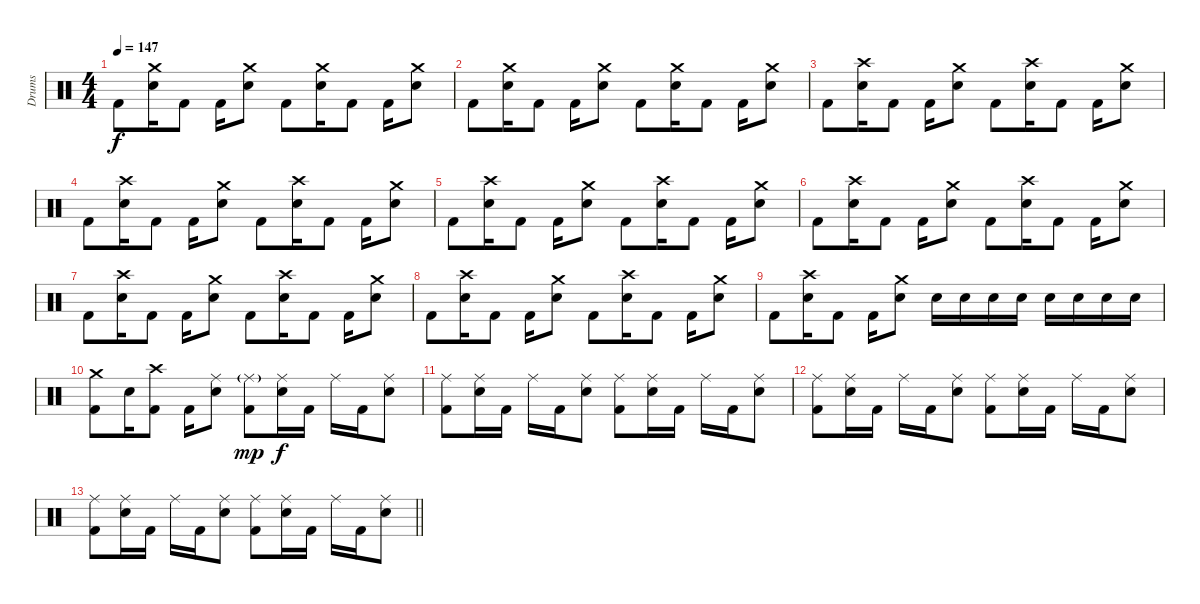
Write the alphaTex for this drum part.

\track ("Drums" "Drums") {instrument percussion}
\staff {score}
\articulation defaults
\ts (4 4)
\tempo 147
\clef neutral
\ks aminor "Kick (hit) 2".8{dy f}
("Crash medium (hit)" "Electric Snare (hit)").16 "Kick (hit) 2".8 "Kick (hit) 2".16 ("Crash medium (hit)" "Electric Snare (hit)").8 "Kick (hit) 2".8 ("Crash medium (hit)" "Electric Snare (hit)").16 "Kick (hit) 2".8 "Kick (hit) 2".16 ("Crash medium (hit)" "Electric Snare (hit)").8 |
"Kick (hit) 2".8{volume 10} ("Crash medium (hit)" "Electric Snare (hit)").16 "Kick (hit) 2".8 "Kick (hit) 2".16 ("Crash medium (hit)" "Electric Snare (hit)").8 "Kick (hit) 2".8 ("Crash medium (hit)" "Electric Snare (hit)").16 "Kick (hit) 2".8 "Kick (hit) 2".16 ("Crash medium (hit)" "Electric Snare (hit)").8 |
"Kick (hit) 2".8 ("Crash high (hit)" "Electric Snare (hit)").16 "Kick (hit) 2".8 "Kick (hit) 2".16 ("Crash medium (hit)" "Electric Snare (hit)").8 "Kick (hit) 2".8 ("Crash high (hit)" "Electric Snare (hit)").16 "Kick (hit) 2".8 "Kick (hit) 2".16 ("Crash medium (hit)" "Electric Snare (hit)").8 |
"Kick (hit) 2".8 ("Crash high (hit)" "Electric Snare (hit)").16 "Kick (hit) 2".8 "Kick (hit) 2".16 ("Crash medium (hit)" "Electric Snare (hit)").8 "Kick (hit) 2".8 ("Crash high (hit)" "Electric Snare (hit)").16 "Kick (hit) 2".8 "Kick (hit) 2".16 ("Crash medium (hit)" "Electric Snare (hit)").8 |
"Kick (hit) 2".8 ("Crash high (hit)" "Electric Snare (hit)").16 "Kick (hit) 2".8 "Kick (hit) 2".16 ("Crash medium (hit)" "Electric Snare (hit)").8 "Kick (hit) 2".8 ("Crash high (hit)" "Electric Snare (hit)").16 "Kick (hit) 2".8 "Kick (hit) 2".16 ("Crash medium (hit)" "Electric Snare (hit)").8 |
"Kick (hit) 2".8{volume 6} ("Crash high (hit)" "Electric Snare (hit)").16 "Kick (hit) 2".8 "Kick (hit) 2".16 ("Crash medium (hit)" "Electric Snare (hit)").8 "Kick (hit) 2".8 ("Crash high (hit)" "Electric Snare (hit)").16 "Kick (hit) 2".8 "Kick (hit) 2".16 ("Crash medium (hit)" "Electric Snare (hit)").8 |
"Kick (hit) 2".8 ("Crash high (hit)" "Electric Snare (hit)").16 "Kick (hit) 2".8 "Kick (hit) 2".16 ("Crash medium (hit)" "Electric Snare (hit)").8 "Kick (hit) 2".8 ("Crash high (hit)" "Electric Snare (hit)").16 "Kick (hit) 2".8 "Kick (hit) 2".16 ("Crash medium (hit)" "Electric Snare (hit)").8 |
"Kick (hit) 2".8 ("Crash high (hit)" "Electric Snare (hit)").16 "Kick (hit) 2".8 "Kick (hit) 2".16 ("Crash medium (hit)" "Electric Snare (hit)").8 "Kick (hit) 2".8 ("Crash high (hit)" "Electric Snare (hit)").16 "Kick (hit) 2".8 "Kick (hit) 2".16 ("Crash medium (hit)" "Electric Snare (hit)").8 |
"Kick (hit) 2".8 ("Crash high (hit)" "Electric Snare (hit)").16 "Kick (hit) 2".8 "Kick (hit) 2".16 ("Crash medium (hit)" "Electric Snare (hit)").8 "Electric Snare (hit)".16 "Electric Snare (hit)".16 "Electric Snare (hit)".16 "Electric Snare (hit)".16 "Electric Snare (hit)".16 "Electric Snare (hit)".16 "Electric Snare (hit)".16 "Electric Snare (hit)".16 |
("Crash medium (hit)" "Kick (hit) 2").8{volume 0} "Electric Snare (hit)".16 ("Crash high (hit)" "Kick (hit) 2").8 "Kick (hit) 2".16 ("Ride (middle)" "Electric Snare (hit)").8 ("Ride (middle)"{g} "Kick (hit) 2").8{dy mp} ("Ride (middle)" "Electric Snare (hit)").16{dy f} "Kick (hit) 2".16 "Ride (middle)".16 "Kick (hit) 2".16 ("Ride (middle)" "Electric Snare (hit)").8 |
("Ride (middle)" "Kick (hit) 2").8 ("Ride (middle)" "Electric Snare (hit)").16 "Kick (hit) 2".16 "Ride (middle)".16 "Kick (hit) 2".16 ("Ride (middle)" "Electric Snare (hit)").8 ("Ride (middle)" "Kick (hit) 2").8 ("Ride (middle)" "Electric Snare (hit)").16 "Kick (hit) 2".16 "Ride (middle)".16 "Kick (hit) 2".16 ("Ride (middle)" "Electric Snare (hit)").8 |
("Ride (middle)" "Kick (hit) 2").8 ("Ride (middle)" "Electric Snare (hit)").16 "Kick (hit) 2".16 "Ride (middle)".16 "Kick (hit) 2".16 ("Ride (middle)" "Electric Snare (hit)").8 ("Ride (middle)" "Kick (hit) 2").8 ("Ride (middle)" "Electric Snare (hit)").16 "Kick (hit) 2".16 "Ride (middle)".16 "Kick (hit) 2".16 ("Ride (middle)" "Electric Snare (hit)").8 |
\barLineRight lightlight
("Ride (middle)" "Kick (hit) 2").8 ("Ride (middle)" "Electric Snare (hit)").16 "Kick (hit) 2".16 "Ride (middle)".16 "Kick (hit) 2".16 ("Ride (middle)" "Electric Snare (hit)").8 ("Ride (middle)" "Kick (hit) 2").8 ("Ride (middle)" "Electric Snare (hit)").16 "Kick (hit) 2".16 "Ride (middle)".16 "Kick (hit) 2".16 ("Ride (middle)" "Electric Snare (hit)").8
